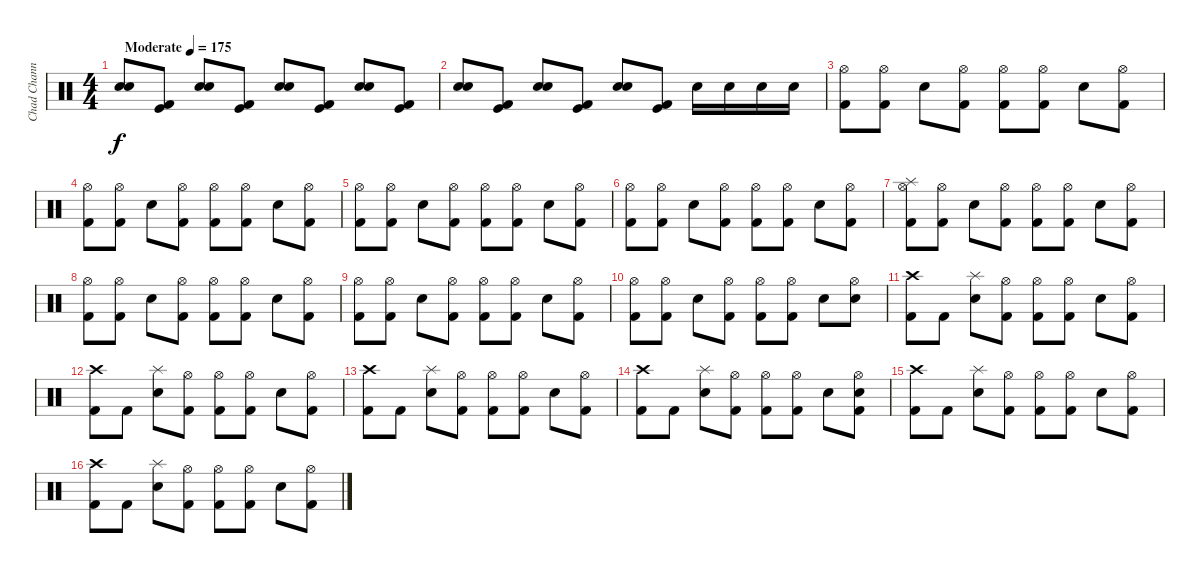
\track ("Chad Channing" "Chad Chann") {instrument percussion}
\staff {score}
\articulation defaults
\ts (4 4)
\tempo (175 "Moderate")
\clef neutral
\ks c
("Snare (hit) 2" "Snare (hit) 2").8{dy f} ("Kick (hit)" "Kick (hit) 2").8 ("Snare (hit) 2" "Snare (hit) 2").8 ("Kick (hit)" "Kick (hit) 2").8 ("Snare (hit) 2" "Snare (hit) 2").8 ("Kick (hit)" "Kick (hit) 2").8 ("Snare (hit) 2" "Snare (hit) 2").8 ("Kick (hit)" "Kick (hit) 2").8 |
("Snare (hit) 2" "Snare (hit) 2").8 ("Kick (hit)" "Kick (hit) 2").8 ("Snare (hit) 2" "Snare (hit) 2").8 ("Kick (hit)" "Kick (hit) 2").8 ("Snare (hit) 2" "Snare (hit) 2").8 ("Kick (hit)" "Kick (hit) 2").8 "Snare (hit) 2".16 "Snare (hit) 2".16 "Snare (hit) 2".16 "Snare (hit) 2".16 |
("Hi-Hat (open)" "Kick (hit) 2").8 ("Hi-Hat (open)" "Kick (hit) 2").8 "Snare (hit) 2".8 ("Hi-Hat (open)" "Kick (hit) 2").8 ("Hi-Hat (open)" "Kick (hit) 2").8 ("Hi-Hat (open)" "Kick (hit) 2").8 "Snare (hit) 2".8 ("Hi-Hat (open)" "Kick (hit) 2").8 |
("Hi-Hat (open)" "Kick (hit) 2").8 ("Hi-Hat (open)" "Kick (hit) 2").8 "Snare (hit) 2".8 ("Hi-Hat (open)" "Kick (hit) 2").8 ("Hi-Hat (open)" "Kick (hit) 2").8 ("Hi-Hat (open)" "Kick (hit) 2").8 "Snare (hit) 2".8 ("Hi-Hat (open)" "Kick (hit) 2").8 |
("Hi-Hat (open)" "Kick (hit) 2").8 ("Hi-Hat (open)" "Kick (hit) 2").8 "Snare (hit) 2".8 ("Hi-Hat (open)" "Kick (hit) 2").8 ("Hi-Hat (open)" "Kick (hit) 2").8 ("Hi-Hat (open)" "Kick (hit) 2").8 "Snare (hit) 2".8 ("Hi-Hat (open)" "Kick (hit) 2").8 |
("Hi-Hat (open)" "Kick (hit) 2").8 ("Hi-Hat (open)" "Kick (hit) 2").8 "Snare (hit) 2".8 ("Hi-Hat (open)" "Kick (hit) 2").8 ("Hi-Hat (open)" "Kick (hit) 2").8 ("Hi-Hat (open)" "Kick (hit) 2").8 "Snare (hit) 2".8 ("Hi-Hat (open)" "Kick (hit) 2").8 |
("Splash (hit)" "Hi-Hat (open)" "Kick (hit) 2").8 ("Hi-Hat (open)" "Kick (hit) 2").8 "Snare (hit) 2".8 ("Hi-Hat (open)" "Kick (hit) 2").8 ("Hi-Hat (open)" "Kick (hit) 2").8 ("Hi-Hat (open)" "Kick (hit) 2").8 "Snare (hit) 2".8 ("Hi-Hat (open)" "Kick (hit) 2").8 |
("Hi-Hat (open)" "Kick (hit) 2").8 ("Hi-Hat (open)" "Kick (hit) 2").8 "Snare (hit) 2".8 ("Hi-Hat (open)" "Kick (hit) 2").8 ("Hi-Hat (open)" "Kick (hit) 2").8 ("Hi-Hat (open)" "Kick (hit) 2").8 "Snare (hit) 2".8 ("Hi-Hat (open)" "Kick (hit) 2").8 |
("Hi-Hat (open)" "Kick (hit) 2").8 ("Hi-Hat (open)" "Kick (hit) 2").8 "Snare (hit) 2".8 ("Hi-Hat (open)" "Kick (hit) 2").8 ("Hi-Hat (open)" "Kick (hit) 2").8 ("Hi-Hat (open)" "Kick (hit) 2").8 "Snare (hit) 2".8 ("Hi-Hat (open)" "Kick (hit) 2").8 |
("Hi-Hat (open)" "Kick (hit) 2").8 ("Hi-Hat (open)" "Kick (hit) 2").8 "Snare (hit) 2".8 ("Hi-Hat (open)" "Kick (hit) 2").8 ("Hi-Hat (open)" "Kick (hit) 2").8 ("Hi-Hat (open)" "Kick (hit) 2").8 "Snare (hit) 2".8 ("Hi-Hat (open)" "Snare (hit) 2").8 |
("Crash high (hit)" "Kick (hit) 2").8 "Kick (hit) 2".8 ("Splash (hit)" "Snare (hit) 2").8 ("Hi-Hat (open)" "Kick (hit) 2").8 ("Hi-Hat (open)" "Kick (hit) 2").8 ("Hi-Hat (open)" "Kick (hit) 2").8 "Snare (hit) 2".8 ("Hi-Hat (open)" "Kick (hit) 2").8 |
("Crash high (hit)" "Kick (hit) 2").8 "Kick (hit) 2".8 ("Splash (hit)" "Snare (hit) 2").8 ("Hi-Hat (open)" "Kick (hit) 2").8 ("Hi-Hat (open)" "Kick (hit) 2").8 ("Hi-Hat (open)" "Kick (hit) 2").8 "Snare (hit) 2".8 ("Hi-Hat (open)" "Kick (hit) 2").8 |
("Crash high (hit)" "Kick (hit) 2").8 "Kick (hit) 2".8 ("Splash (hit)" "Snare (hit) 2").8 ("Hi-Hat (open)" "Kick (hit) 2").8 ("Hi-Hat (open)" "Kick (hit) 2").8 ("Hi-Hat (open)" "Kick (hit) 2").8 "Snare (hit) 2".8 ("Hi-Hat (open)" "Kick (hit) 2").8 |
("Crash high (hit)" "Kick (hit) 2").8 "Kick (hit) 2".8 ("Splash (hit)" "Snare (hit) 2").8 ("Hi-Hat (open)" "Kick (hit) 2").8 ("Hi-Hat (open)" "Kick (hit) 2").8 ("Hi-Hat (open)" "Kick (hit) 2").8 "Snare (hit) 2".8 ("Hi-Hat (open)" "Snare (hit) 2" "Kick (hit) 2").8 |
("Crash high (hit)" "Kick (hit) 2").8 "Kick (hit) 2".8 ("Splash (hit)" "Snare (hit) 2").8 ("Hi-Hat (open)" "Kick (hit) 2").8 ("Hi-Hat (open)" "Kick (hit) 2").8 ("Hi-Hat (open)" "Kick (hit) 2").8 "Snare (hit) 2".8 ("Hi-Hat (open)" "Kick (hit) 2").8 |
("Crash high (hit)" "Kick (hit) 2").8 "Kick (hit) 2".8 ("Splash (hit)" "Snare (hit) 2").8 ("Hi-Hat (open)" "Kick (hit) 2").8 ("Hi-Hat (open)" "Kick (hit) 2").8 ("Hi-Hat (open)" "Kick (hit) 2").8 "Snare (hit) 2".8 ("Hi-Hat (open)" "Kick (hit) 2").8
